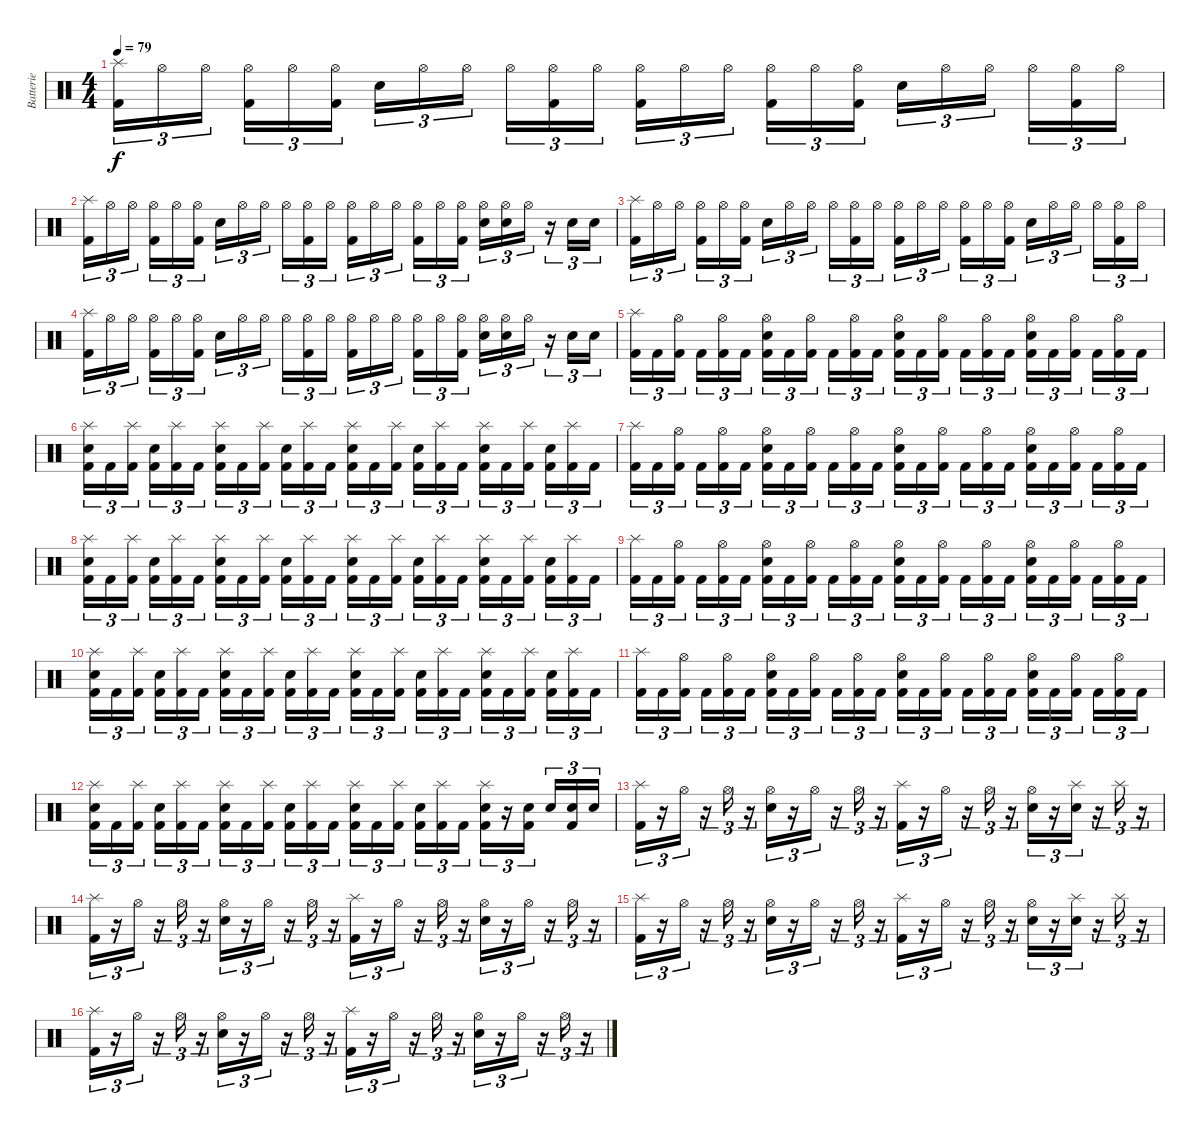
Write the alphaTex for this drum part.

\track ("Batterie" "Batterie") {instrument percussion}
\staff {score}
\articulation defaults
\ts (4 4)
\tempo 79
\clef neutral
\ks c
("Splash (hit)" "Kick (hit) 2").16{tu (3 2) dy f} "Hi-Hat (open)".16{tu (3 2)} "Hi-Hat (open)".16{tu (3 2)} ("Hi-Hat (open)" "Kick (hit) 2").16{tu (3 2)} "Hi-Hat (open)".16{tu (3 2)} ("Hi-Hat (open)" "Kick (hit) 2").16{tu (3 2)} "Snare (hit) 2".16{tu (3 2)} "Hi-Hat (open)".16{tu (3 2)} "Hi-Hat (open)".16{tu (3 2)} "Hi-Hat (open)".16{tu (3 2)} ("Hi-Hat (open)" "Kick (hit) 2").16{tu (3 2)} "Hi-Hat (open)".16{tu (3 2)} ("Hi-Hat (open)" "Kick (hit) 2").16{tu (3 2)} "Hi-Hat (open)".16{tu (3 2)} "Hi-Hat (open)".16{tu (3 2)} ("Hi-Hat (open)" "Kick (hit) 2").16{tu (3 2)} "Hi-Hat (open)".16{tu (3 2)} ("Hi-Hat (open)" "Kick (hit) 2").16{tu (3 2)} "Snare (hit) 2".16{tu (3 2)} "Hi-Hat (open)".16{tu (3 2)} "Hi-Hat (open)".16{tu (3 2)} "Hi-Hat (open)".16{tu (3 2)} ("Hi-Hat (open)" "Kick (hit) 2").16{tu (3 2)} "Hi-Hat (open)".16{tu (3 2)} |
("Splash (hit)" "Kick (hit) 2").16{tu (3 2)} "Hi-Hat (open)".16{tu (3 2)} "Hi-Hat (open)".16{tu (3 2)} ("Hi-Hat (open)" "Kick (hit) 2").16{tu (3 2)} "Hi-Hat (open)".16{tu (3 2)} ("Hi-Hat (open)" "Kick (hit) 2").16{tu (3 2)} "Snare (hit) 2".16{tu (3 2)} "Hi-Hat (open)".16{tu (3 2)} "Hi-Hat (open)".16{tu (3 2)} "Hi-Hat (open)".16{tu (3 2)} ("Hi-Hat (open)" "Kick (hit) 2").16{tu (3 2)} "Hi-Hat (open)".16{tu (3 2)} ("Hi-Hat (open)" "Kick (hit) 2").16{tu (3 2)} "Hi-Hat (open)".16{tu (3 2)} "Hi-Hat (open)".16{tu (3 2)} ("Hi-Hat (open)" "Kick (hit) 2").16{tu (3 2)} "Hi-Hat (open)".16{tu (3 2)} ("Hi-Hat (open)" "Kick (hit) 2").16{tu (3 2)} ("Hi-Hat (open)" "Snare (hit) 2").16{tu (3 2)} ("Hi-Hat (open)" "Snare (hit) 2").16{tu (3 2)} "Hi-Hat (open)".16{tu (3 2)} r.16{tu (3 2)} "Snare (hit) 2".16{tu (3 2)} "Snare (hit) 2".16{tu (3 2)} |
("Splash (hit)" "Kick (hit) 2").16{tu (3 2)} "Hi-Hat (open)".16{tu (3 2)} "Hi-Hat (open)".16{tu (3 2)} ("Hi-Hat (open)" "Kick (hit) 2").16{tu (3 2)} "Hi-Hat (open)".16{tu (3 2)} ("Hi-Hat (open)" "Kick (hit) 2").16{tu (3 2)} "Snare (hit) 2".16{tu (3 2)} "Hi-Hat (open)".16{tu (3 2)} "Hi-Hat (open)".16{tu (3 2)} "Hi-Hat (open)".16{tu (3 2)} ("Hi-Hat (open)" "Kick (hit) 2").16{tu (3 2)} "Hi-Hat (open)".16{tu (3 2)} ("Hi-Hat (open)" "Kick (hit) 2").16{tu (3 2)} "Hi-Hat (open)".16{tu (3 2)} "Hi-Hat (open)".16{tu (3 2)} ("Hi-Hat (open)" "Kick (hit) 2").16{tu (3 2)} "Hi-Hat (open)".16{tu (3 2)} ("Hi-Hat (open)" "Kick (hit) 2").16{tu (3 2)} "Snare (hit) 2".16{tu (3 2)} "Hi-Hat (open)".16{tu (3 2)} "Hi-Hat (open)".16{tu (3 2)} "Hi-Hat (open)".16{tu (3 2)} ("Hi-Hat (open)" "Kick (hit) 2").16{tu (3 2)} "Hi-Hat (open)".16{tu (3 2)} |
("Splash (hit)" "Kick (hit) 2").16{tu (3 2)} "Hi-Hat (open)".16{tu (3 2)} "Hi-Hat (open)".16{tu (3 2)} ("Hi-Hat (open)" "Kick (hit) 2").16{tu (3 2)} "Hi-Hat (open)".16{tu (3 2)} ("Hi-Hat (open)" "Kick (hit) 2").16{tu (3 2)} "Snare (hit) 2".16{tu (3 2)} "Hi-Hat (open)".16{tu (3 2)} "Hi-Hat (open)".16{tu (3 2)} "Hi-Hat (open)".16{tu (3 2)} ("Hi-Hat (open)" "Kick (hit) 2").16{tu (3 2)} "Hi-Hat (open)".16{tu (3 2)} ("Hi-Hat (open)" "Kick (hit) 2").16{tu (3 2)} "Hi-Hat (open)".16{tu (3 2)} "Hi-Hat (open)".16{tu (3 2)} ("Hi-Hat (open)" "Kick (hit) 2").16{tu (3 2)} "Hi-Hat (open)".16{tu (3 2)} ("Hi-Hat (open)" "Kick (hit) 2").16{tu (3 2)} ("Hi-Hat (open)" "Snare (hit) 2").16{tu (3 2)} ("Hi-Hat (open)" "Snare (hit) 2").16{tu (3 2)} "Hi-Hat (open)".16{tu (3 2)} r.16{tu (3 2)} "Snare (hit) 2".16{tu (3 2)} "Snare (hit) 2".16{tu (3 2)} |
("Splash (hit)" "Kick (hit) 2").16{tu (3 2)} "Kick (hit) 2".16{tu (3 2)} ("Hi-Hat (open)" "Kick (hit) 2").16{tu (3 2)} "Kick (hit) 2".16{tu (3 2)} ("Hi-Hat (open)" "Kick (hit) 2").16{tu (3 2)} "Kick (hit) 2".16{tu (3 2)} ("Hi-Hat (open)" "Snare (hit) 2" "Kick (hit) 2").16{tu (3 2)} "Kick (hit) 2".16{tu (3 2)} ("Hi-Hat (open)" "Kick (hit) 2").16{tu (3 2)} "Kick (hit) 2".16{tu (3 2)} ("Hi-Hat (open)" "Kick (hit) 2").16{tu (3 2)} "Kick (hit) 2".16{tu (3 2)} ("Hi-Hat (open)" "Snare (hit) 2" "Kick (hit) 2").16{tu (3 2)} "Kick (hit) 2".16{tu (3 2)} ("Hi-Hat (open)" "Kick (hit) 2").16{tu (3 2)} "Kick (hit) 2".16{tu (3 2)} ("Hi-Hat (open)" "Kick (hit) 2").16{tu (3 2)} "Kick (hit) 2".16{tu (3 2)} ("Hi-Hat (open)" "Snare (hit) 2" "Kick (hit) 2").16{tu (3 2)} "Kick (hit) 2".16{tu (3 2)} ("Hi-Hat (open)" "Kick (hit) 2").16{tu (3 2)} "Kick (hit) 2".16{tu (3 2)} ("Hi-Hat (open)" "Kick (hit) 2").16{tu (3 2)} "Kick (hit) 2".16{tu (3 2)} |
("Splash (hit)" "Snare (hit) 2" "Kick (hit) 2").16{tu (3 2)} "Kick (hit) 2".16{tu (3 2)} ("Splash (hit)" "Kick (hit) 2").16{tu (3 2)} ("Snare (hit) 2" "Kick (hit) 2").16{tu (3 2)} ("Splash (hit)" "Kick (hit) 2").16{tu (3 2)} "Kick (hit) 2".16{tu (3 2)} ("Splash (hit)" "Snare (hit) 2" "Kick (hit) 2").16{tu (3 2)} "Kick (hit) 2".16{tu (3 2)} ("Splash (hit)" "Kick (hit) 2").16{tu (3 2)} ("Snare (hit) 2" "Kick (hit) 2").16{tu (3 2)} ("Splash (hit)" "Kick (hit) 2").16{tu (3 2)} "Kick (hit) 2".16{tu (3 2)} ("Splash (hit)" "Snare (hit) 2" "Kick (hit) 2").16{tu (3 2)} "Kick (hit) 2".16{tu (3 2)} ("Splash (hit)" "Kick (hit) 2").16{tu (3 2)} ("Snare (hit) 2" "Kick (hit) 2").16{tu (3 2)} ("Splash (hit)" "Kick (hit) 2").16{tu (3 2)} "Kick (hit) 2".16{tu (3 2)} ("Splash (hit)" "Snare (hit) 2" "Kick (hit) 2").16{tu (3 2)} "Kick (hit) 2".16{tu (3 2)} ("Splash (hit)" "Kick (hit) 2").16{tu (3 2)} ("Snare (hit) 2" "Kick (hit) 2").16{tu (3 2)} ("Splash (hit)" "Kick (hit) 2").16{tu (3 2)} "Kick (hit) 2".16{tu (3 2)} |
("Splash (hit)" "Kick (hit) 2").16{tu (3 2)} "Kick (hit) 2".16{tu (3 2)} ("Hi-Hat (open)" "Kick (hit) 2").16{tu (3 2)} "Kick (hit) 2".16{tu (3 2)} ("Hi-Hat (open)" "Kick (hit) 2").16{tu (3 2)} "Kick (hit) 2".16{tu (3 2)} ("Hi-Hat (open)" "Snare (hit) 2" "Kick (hit) 2").16{tu (3 2)} "Kick (hit) 2".16{tu (3 2)} ("Hi-Hat (open)" "Kick (hit) 2").16{tu (3 2)} "Kick (hit) 2".16{tu (3 2)} ("Hi-Hat (open)" "Kick (hit) 2").16{tu (3 2)} "Kick (hit) 2".16{tu (3 2)} ("Hi-Hat (open)" "Snare (hit) 2" "Kick (hit) 2").16{tu (3 2)} "Kick (hit) 2".16{tu (3 2)} ("Hi-Hat (open)" "Kick (hit) 2").16{tu (3 2)} "Kick (hit) 2".16{tu (3 2)} ("Hi-Hat (open)" "Kick (hit) 2").16{tu (3 2)} "Kick (hit) 2".16{tu (3 2)} ("Hi-Hat (open)" "Snare (hit) 2" "Kick (hit) 2").16{tu (3 2)} "Kick (hit) 2".16{tu (3 2)} ("Hi-Hat (open)" "Kick (hit) 2").16{tu (3 2)} "Kick (hit) 2".16{tu (3 2)} ("Hi-Hat (open)" "Kick (hit) 2").16{tu (3 2)} "Kick (hit) 2".16{tu (3 2)} |
("Splash (hit)" "Snare (hit) 2" "Kick (hit) 2").16{tu (3 2)} "Kick (hit) 2".16{tu (3 2)} ("Splash (hit)" "Kick (hit) 2").16{tu (3 2)} ("Snare (hit) 2" "Kick (hit) 2").16{tu (3 2)} ("Splash (hit)" "Kick (hit) 2").16{tu (3 2)} "Kick (hit) 2".16{tu (3 2)} ("Splash (hit)" "Snare (hit) 2" "Kick (hit) 2").16{tu (3 2)} "Kick (hit) 2".16{tu (3 2)} ("Splash (hit)" "Kick (hit) 2").16{tu (3 2)} ("Snare (hit) 2" "Kick (hit) 2").16{tu (3 2)} ("Splash (hit)" "Kick (hit) 2").16{tu (3 2)} "Kick (hit) 2".16{tu (3 2)} ("Splash (hit)" "Snare (hit) 2" "Kick (hit) 2").16{tu (3 2)} "Kick (hit) 2".16{tu (3 2)} ("Splash (hit)" "Kick (hit) 2").16{tu (3 2)} ("Snare (hit) 2" "Kick (hit) 2").16{tu (3 2)} ("Splash (hit)" "Kick (hit) 2").16{tu (3 2)} "Kick (hit) 2".16{tu (3 2)} ("Splash (hit)" "Snare (hit) 2" "Kick (hit) 2").16{tu (3 2)} "Kick (hit) 2".16{tu (3 2)} ("Splash (hit)" "Kick (hit) 2").16{tu (3 2)} ("Snare (hit) 2" "Kick (hit) 2").16{tu (3 2)} ("Splash (hit)" "Kick (hit) 2").16{tu (3 2)} "Kick (hit) 2".16{tu (3 2)} |
("Splash (hit)" "Kick (hit) 2").16{tu (3 2)} "Kick (hit) 2".16{tu (3 2)} ("Hi-Hat (open)" "Kick (hit) 2").16{tu (3 2)} "Kick (hit) 2".16{tu (3 2)} ("Hi-Hat (open)" "Kick (hit) 2").16{tu (3 2)} "Kick (hit) 2".16{tu (3 2)} ("Hi-Hat (open)" "Snare (hit) 2" "Kick (hit) 2").16{tu (3 2)} "Kick (hit) 2".16{tu (3 2)} ("Hi-Hat (open)" "Kick (hit) 2").16{tu (3 2)} "Kick (hit) 2".16{tu (3 2)} ("Hi-Hat (open)" "Kick (hit) 2").16{tu (3 2)} "Kick (hit) 2".16{tu (3 2)} ("Hi-Hat (open)" "Snare (hit) 2" "Kick (hit) 2").16{tu (3 2)} "Kick (hit) 2".16{tu (3 2)} ("Hi-Hat (open)" "Kick (hit) 2").16{tu (3 2)} "Kick (hit) 2".16{tu (3 2)} ("Hi-Hat (open)" "Kick (hit) 2").16{tu (3 2)} "Kick (hit) 2".16{tu (3 2)} ("Hi-Hat (open)" "Snare (hit) 2" "Kick (hit) 2").16{tu (3 2)} "Kick (hit) 2".16{tu (3 2)} ("Hi-Hat (open)" "Kick (hit) 2").16{tu (3 2)} "Kick (hit) 2".16{tu (3 2)} ("Hi-Hat (open)" "Kick (hit) 2").16{tu (3 2)} "Kick (hit) 2".16{tu (3 2)} |
("Splash (hit)" "Snare (hit) 2" "Kick (hit) 2").16{tu (3 2)} "Kick (hit) 2".16{tu (3 2)} ("Splash (hit)" "Kick (hit) 2").16{tu (3 2)} ("Snare (hit) 2" "Kick (hit) 2").16{tu (3 2)} ("Splash (hit)" "Kick (hit) 2").16{tu (3 2)} "Kick (hit) 2".16{tu (3 2)} ("Splash (hit)" "Snare (hit) 2" "Kick (hit) 2").16{tu (3 2)} "Kick (hit) 2".16{tu (3 2)} ("Splash (hit)" "Kick (hit) 2").16{tu (3 2)} ("Snare (hit) 2" "Kick (hit) 2").16{tu (3 2)} ("Splash (hit)" "Kick (hit) 2").16{tu (3 2)} "Kick (hit) 2".16{tu (3 2)} ("Splash (hit)" "Snare (hit) 2" "Kick (hit) 2").16{tu (3 2)} "Kick (hit) 2".16{tu (3 2)} ("Splash (hit)" "Kick (hit) 2").16{tu (3 2)} ("Snare (hit) 2" "Kick (hit) 2").16{tu (3 2)} ("Splash (hit)" "Kick (hit) 2").16{tu (3 2)} "Kick (hit) 2".16{tu (3 2)} ("Splash (hit)" "Snare (hit) 2" "Kick (hit) 2").16{tu (3 2)} "Kick (hit) 2".16{tu (3 2)} ("Splash (hit)" "Kick (hit) 2").16{tu (3 2)} ("Snare (hit) 2" "Kick (hit) 2").16{tu (3 2)} ("Splash (hit)" "Kick (hit) 2").16{tu (3 2)} "Kick (hit) 2".16{tu (3 2)} |
("Splash (hit)" "Kick (hit) 2").16{tu (3 2)} "Kick (hit) 2".16{tu (3 2)} ("Hi-Hat (open)" "Kick (hit) 2").16{tu (3 2)} "Kick (hit) 2".16{tu (3 2)} ("Hi-Hat (open)" "Kick (hit) 2").16{tu (3 2)} "Kick (hit) 2".16{tu (3 2)} ("Hi-Hat (open)" "Snare (hit) 2" "Kick (hit) 2").16{tu (3 2)} "Kick (hit) 2".16{tu (3 2)} ("Hi-Hat (open)" "Kick (hit) 2").16{tu (3 2)} "Kick (hit) 2".16{tu (3 2)} ("Hi-Hat (open)" "Kick (hit) 2").16{tu (3 2)} "Kick (hit) 2".16{tu (3 2)} ("Hi-Hat (open)" "Snare (hit) 2" "Kick (hit) 2").16{tu (3 2)} "Kick (hit) 2".16{tu (3 2)} ("Hi-Hat (open)" "Kick (hit) 2").16{tu (3 2)} "Kick (hit) 2".16{tu (3 2)} ("Hi-Hat (open)" "Kick (hit) 2").16{tu (3 2)} "Kick (hit) 2".16{tu (3 2)} ("Hi-Hat (open)" "Snare (hit) 2" "Kick (hit) 2").16{tu (3 2)} "Kick (hit) 2".16{tu (3 2)} ("Hi-Hat (open)" "Kick (hit) 2").16{tu (3 2)} "Kick (hit) 2".16{tu (3 2)} ("Hi-Hat (open)" "Kick (hit) 2").16{tu (3 2)} "Kick (hit) 2".16{tu (3 2)} |
("Splash (hit)" "Snare (hit) 2" "Kick (hit) 2").16{tu (3 2)} "Kick (hit) 2".16{tu (3 2)} ("Splash (hit)" "Kick (hit) 2").16{tu (3 2)} ("Snare (hit) 2" "Kick (hit) 2").16{tu (3 2)} ("Splash (hit)" "Kick (hit) 2").16{tu (3 2)} "Kick (hit) 2".16{tu (3 2)} ("Splash (hit)" "Snare (hit) 2" "Kick (hit) 2").16{tu (3 2)} "Kick (hit) 2".16{tu (3 2)} ("Splash (hit)" "Kick (hit) 2").16{tu (3 2)} ("Snare (hit) 2" "Kick (hit) 2").16{tu (3 2)} ("Splash (hit)" "Kick (hit) 2").16{tu (3 2)} "Kick (hit) 2".16{tu (3 2)} ("Splash (hit)" "Snare (hit) 2" "Kick (hit) 2").16{tu (3 2)} "Kick (hit) 2".16{tu (3 2)} ("Splash (hit)" "Kick (hit) 2").16{tu (3 2)} ("Snare (hit) 2" "Kick (hit) 2").16{tu (3 2)} ("Splash (hit)" "Kick (hit) 2").16{tu (3 2)} "Kick (hit) 2".16{tu (3 2)} ("Splash (hit)" "Snare (hit) 2" "Kick (hit) 2").16{tu (3 2)} r.16{tu (3 2)} ("Snare (hit) 2" "Kick (hit) 2").16{tu (3 2)} "Snare (hit) 2".16{tu (3 2)} ("Snare (hit) 2" "Kick (hit) 2").16{tu (3 2)} "Snare (hit) 2".16{tu (3 2)} |
("Splash (hit)" "Kick (hit) 2").16{tu (3 2)} r.16{tu (3 2)} "Hi-Hat (open)".16{tu (3 2)} r.16{tu (3 2)} "Hi-Hat (open)".16{tu (3 2)} r.16{tu (3 2)} ("Hi-Hat (open)" "Snare (hit) 2").16{tu (3 2)} r.16{tu (3 2)} "Hi-Hat (open)".16{tu (3 2)} r.16{tu (3 2)} "Hi-Hat (open)".16{tu (3 2)} r.16{tu (3 2)} ("Splash (hit)" "Kick (hit) 2").16{tu (3 2)} r.16{tu (3 2)} "Hi-Hat (open)".16{tu (3 2)} r.16{tu (3 2)} "Hi-Hat (open)".16{tu (3 2)} r.16{tu (3 2)} ("Hi-Hat (open)" "Snare (hit) 2").16{tu (3 2)} r.16{tu (3 2)} ("Splash (hit)" "Snare (hit) 2").16{tu (3 2)} r.16{tu (3 2)} "Splash (hit)".16{tu (3 2)} r.16{tu (3 2)} |
("Splash (hit)" "Kick (hit) 2").16{tu (3 2)} r.16{tu (3 2)} "Hi-Hat (open)".16{tu (3 2)} r.16{tu (3 2)} "Hi-Hat (open)".16{tu (3 2)} r.16{tu (3 2)} ("Hi-Hat (open)" "Snare (hit) 2").16{tu (3 2)} r.16{tu (3 2)} "Hi-Hat (open)".16{tu (3 2)} r.16{tu (3 2)} "Hi-Hat (open)".16{tu (3 2)} r.16{tu (3 2)} ("Splash (hit)" "Kick (hit) 2").16{tu (3 2)} r.16{tu (3 2)} "Hi-Hat (open)".16{tu (3 2)} r.16{tu (3 2)} "Hi-Hat (open)".16{tu (3 2)} r.16{tu (3 2)} ("Hi-Hat (open)" "Snare (hit) 2").16{tu (3 2)} r.16{tu (3 2)} "Hi-Hat (open)".16{tu (3 2)} r.16{tu (3 2)} "Hi-Hat (open)".16{tu (3 2)} r.16{tu (3 2)} |
("Splash (hit)" "Kick (hit) 2").16{tu (3 2)} r.16{tu (3 2)} "Hi-Hat (open)".16{tu (3 2)} r.16{tu (3 2)} "Hi-Hat (open)".16{tu (3 2)} r.16{tu (3 2)} ("Hi-Hat (open)" "Snare (hit) 2").16{tu (3 2)} r.16{tu (3 2)} "Hi-Hat (open)".16{tu (3 2)} r.16{tu (3 2)} "Hi-Hat (open)".16{tu (3 2)} r.16{tu (3 2)} ("Splash (hit)" "Kick (hit) 2").16{tu (3 2)} r.16{tu (3 2)} "Hi-Hat (open)".16{tu (3 2)} r.16{tu (3 2)} "Hi-Hat (open)".16{tu (3 2)} r.16{tu (3 2)} ("Hi-Hat (open)" "Snare (hit) 2").16{tu (3 2)} r.16{tu (3 2)} ("Splash (hit)" "Snare (hit) 2").16{tu (3 2)} r.16{tu (3 2)} "Splash (hit)".16{tu (3 2)} r.16{tu (3 2)} |
("Splash (hit)" "Kick (hit) 2").16{tu (3 2)} r.16{tu (3 2)} "Hi-Hat (open)".16{tu (3 2)} r.16{tu (3 2)} "Hi-Hat (open)".16{tu (3 2)} r.16{tu (3 2)} ("Hi-Hat (open)" "Snare (hit) 2").16{tu (3 2)} r.16{tu (3 2)} "Hi-Hat (open)".16{tu (3 2)} r.16{tu (3 2)} "Hi-Hat (open)".16{tu (3 2)} r.16{tu (3 2)} ("Splash (hit)" "Kick (hit) 2").16{tu (3 2)} r.16{tu (3 2)} "Hi-Hat (open)".16{tu (3 2)} r.16{tu (3 2)} "Hi-Hat (open)".16{tu (3 2)} r.16{tu (3 2)} ("Hi-Hat (open)" "Snare (hit) 2").16{tu (3 2)} r.16{tu (3 2)} "Hi-Hat (open)".16{tu (3 2)} r.16{tu (3 2)} "Hi-Hat (open)".16{tu (3 2)} r.16{tu (3 2)}
